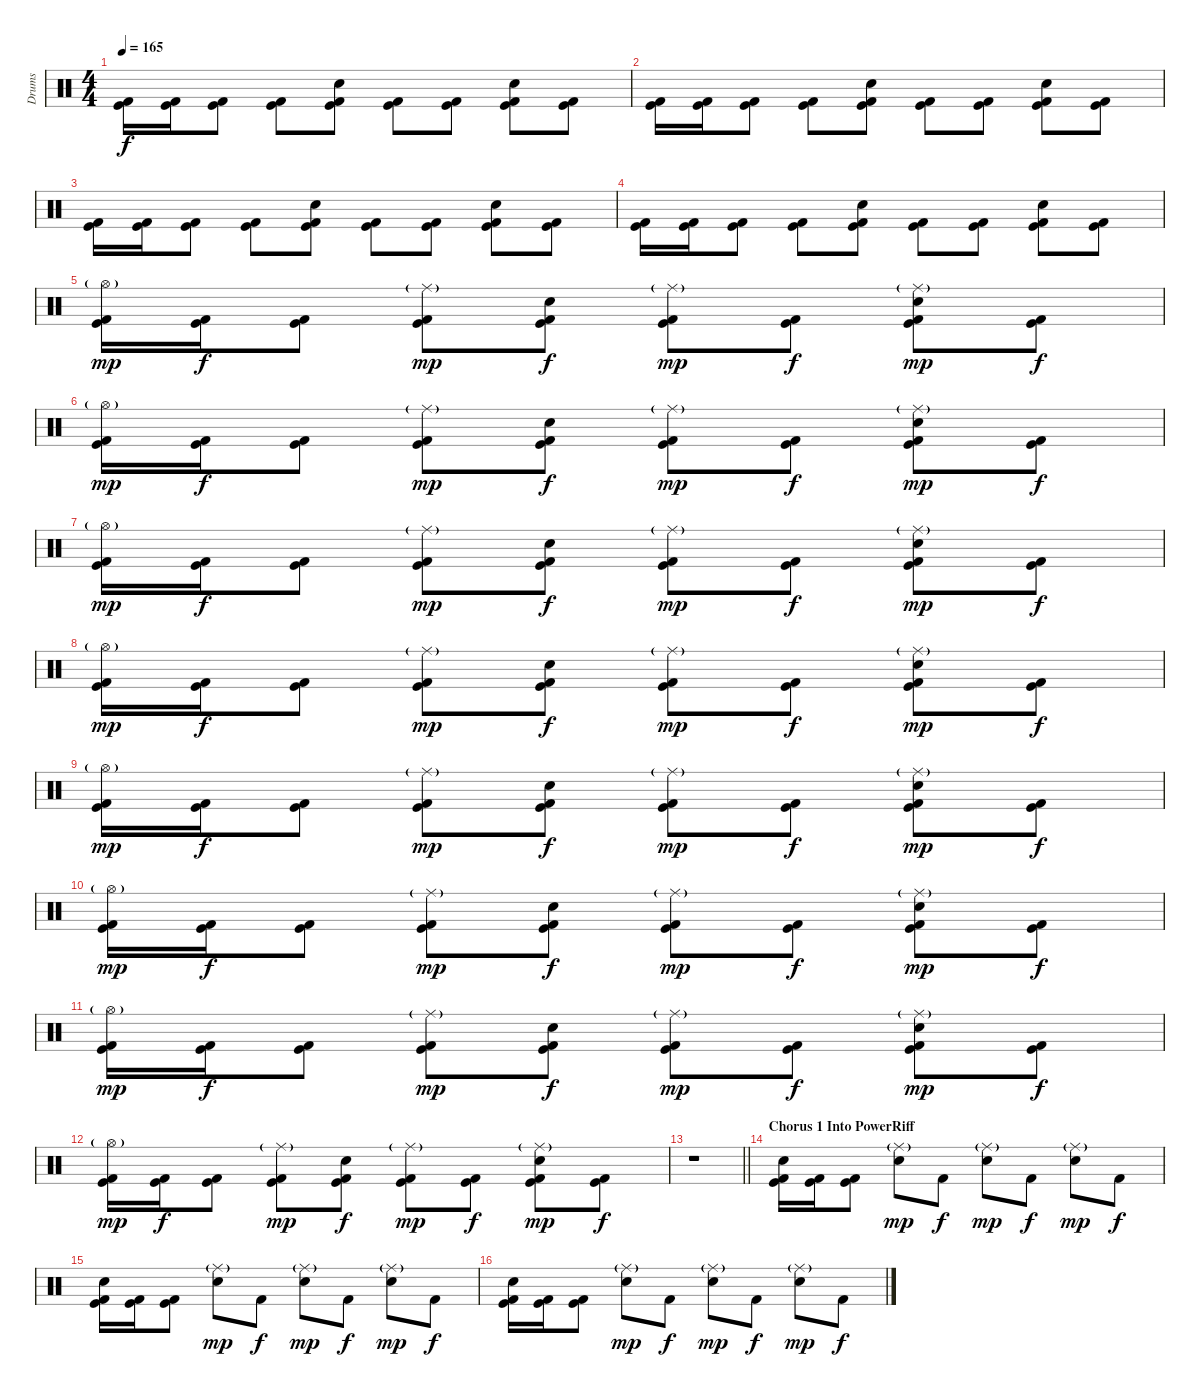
\track ("Drums" "Drums") {instrument percussion}
\staff {score}
\articulation defaults
\ts (4 4)
\tempo 165
\clef neutral
\ks c
("Kick (hit)" "Kick (hit) 2").16{dy f beam Down} ("Kick (hit)" "Kick (hit) 2").16{beam Down} ("Kick (hit)" "Kick (hit) 2").8{beam Down} ("Kick (hit)" "Kick (hit) 2").8{beam Down} ("Snare (hit) 2" "Kick (hit)" "Kick (hit) 2").8{beam Down} ("Kick (hit)" "Kick (hit) 2").8{beam Down} ("Kick (hit)" "Kick (hit) 2").8{beam Down} ("Snare (hit) 2" "Kick (hit)" "Kick (hit) 2").8{beam Down} ("Kick (hit)" "Kick (hit) 2").8{beam Down} |
("Kick (hit)" "Kick (hit) 2").16{beam Down} ("Kick (hit)" "Kick (hit) 2").16{beam Down} ("Kick (hit)" "Kick (hit) 2").8{beam Down} ("Kick (hit)" "Kick (hit) 2").8{beam Down} ("Snare (hit) 2" "Kick (hit)" "Kick (hit) 2").8{beam Down} ("Kick (hit)" "Kick (hit) 2").8{beam Down} ("Kick (hit)" "Kick (hit) 2").8{beam Down} ("Snare (hit) 2" "Kick (hit)" "Kick (hit) 2").8{beam Down} ("Kick (hit)" "Kick (hit) 2").8{beam Down} |
("Kick (hit)" "Kick (hit) 2").16{beam Down} ("Kick (hit)" "Kick (hit) 2").16{beam Down} ("Kick (hit)" "Kick (hit) 2").8{beam Down} ("Kick (hit)" "Kick (hit) 2").8{beam Down} ("Snare (hit) 2" "Kick (hit)" "Kick (hit) 2").8{beam Down} ("Kick (hit)" "Kick (hit) 2").8{beam Down} ("Kick (hit)" "Kick (hit) 2").8{beam Down} ("Snare (hit) 2" "Kick (hit)" "Kick (hit) 2").8{beam Down} ("Kick (hit)" "Kick (hit) 2").8{beam Down} |
("Kick (hit)" "Kick (hit) 2").16{beam Down} ("Kick (hit)" "Kick (hit) 2").16{beam Down} ("Kick (hit)" "Kick (hit) 2").8{beam Down} ("Kick (hit)" "Kick (hit) 2").8{beam Down} ("Snare (hit) 2" "Kick (hit)" "Kick (hit) 2").8{beam Down} ("Kick (hit)" "Kick (hit) 2").8{beam Down} ("Kick (hit)" "Kick (hit) 2").8{beam Down} ("Snare (hit) 2" "Kick (hit)" "Kick (hit) 2").8{beam Down} ("Kick (hit)" "Kick (hit) 2").8{beam Down} |
("Hi-Hat (open)"{g} "Kick (hit)" "Kick (hit) 2").16{dy mp beam Down} ("Kick (hit)" "Kick (hit) 2").16{dy f beam Down} ("Kick (hit)" "Kick (hit) 2").8{beam Down} ("Ride (middle)"{g} "Kick (hit)" "Kick (hit) 2").8{dy mp beam Down} ("Snare (hit) 2" "Kick (hit)" "Kick (hit) 2").8{dy f beam Down} ("Ride (middle)"{g} "Kick (hit)" "Kick (hit) 2").8{dy mp beam Down} ("Kick (hit)" "Kick (hit) 2").8{dy f beam Down} ("Ride (middle)"{g} "Snare (hit) 2" "Kick (hit)" "Kick (hit) 2").8{dy mp beam Down} ("Kick (hit)" "Kick (hit) 2").8{dy f beam Down} |
("Hi-Hat (open)"{g} "Kick (hit)" "Kick (hit) 2").16{dy mp beam Down} ("Kick (hit)" "Kick (hit) 2").16{dy f beam Down} ("Kick (hit)" "Kick (hit) 2").8{beam Down} ("Ride (middle)"{g} "Kick (hit)" "Kick (hit) 2").8{dy mp beam Down} ("Snare (hit) 2" "Kick (hit)" "Kick (hit) 2").8{dy f beam Down} ("Ride (middle)"{g} "Kick (hit)" "Kick (hit) 2").8{dy mp beam Down} ("Kick (hit)" "Kick (hit) 2").8{dy f beam Down} ("Ride (middle)"{g} "Snare (hit) 2" "Kick (hit)" "Kick (hit) 2").8{dy mp beam Down} ("Kick (hit)" "Kick (hit) 2").8{dy f beam Down} |
("Hi-Hat (open)"{g} "Kick (hit)" "Kick (hit) 2").16{dy mp beam Down} ("Kick (hit)" "Kick (hit) 2").16{dy f beam Down} ("Kick (hit)" "Kick (hit) 2").8{beam Down} ("Ride (middle)"{g} "Kick (hit)" "Kick (hit) 2").8{dy mp beam Down} ("Snare (hit) 2" "Kick (hit)" "Kick (hit) 2").8{dy f beam Down} ("Ride (middle)"{g} "Kick (hit)" "Kick (hit) 2").8{dy mp beam Down} ("Kick (hit)" "Kick (hit) 2").8{dy f beam Down} ("Ride (middle)"{g} "Snare (hit) 2" "Kick (hit)" "Kick (hit) 2").8{dy mp beam Down} ("Kick (hit)" "Kick (hit) 2").8{dy f beam Down} |
("Hi-Hat (open)"{g} "Kick (hit)" "Kick (hit) 2").16{dy mp beam Down} ("Kick (hit)" "Kick (hit) 2").16{dy f beam Down} ("Kick (hit)" "Kick (hit) 2").8{beam Down} ("Ride (middle)"{g} "Kick (hit)" "Kick (hit) 2").8{dy mp beam Down} ("Snare (hit) 2" "Kick (hit)" "Kick (hit) 2").8{dy f beam Down} ("Ride (middle)"{g} "Kick (hit)" "Kick (hit) 2").8{dy mp beam Down} ("Kick (hit)" "Kick (hit) 2").8{dy f beam Down} ("Ride (middle)"{g} "Snare (hit) 2" "Kick (hit)" "Kick (hit) 2").8{dy mp beam Down} ("Kick (hit)" "Kick (hit) 2").8{dy f beam Down} |
("Hi-Hat (open)"{g} "Kick (hit)" "Kick (hit) 2").16{dy mp beam Down} ("Kick (hit)" "Kick (hit) 2").16{dy f beam Down} ("Kick (hit)" "Kick (hit) 2").8{beam Down} ("Ride (middle)"{g} "Kick (hit)" "Kick (hit) 2").8{dy mp beam Down} ("Snare (hit) 2" "Kick (hit)" "Kick (hit) 2").8{dy f beam Down} ("Ride (middle)"{g} "Kick (hit)" "Kick (hit) 2").8{dy mp beam Down} ("Kick (hit)" "Kick (hit) 2").8{dy f beam Down} ("Ride (middle)"{g} "Snare (hit) 2" "Kick (hit)" "Kick (hit) 2").8{dy mp beam Down} ("Kick (hit)" "Kick (hit) 2").8{dy f beam Down} |
("Hi-Hat (open)"{g} "Kick (hit)" "Kick (hit) 2").16{dy mp beam Down} ("Kick (hit)" "Kick (hit) 2").16{dy f beam Down} ("Kick (hit)" "Kick (hit) 2").8{beam Down} ("Ride (middle)"{g} "Kick (hit)" "Kick (hit) 2").8{dy mp beam Down} ("Snare (hit) 2" "Kick (hit)" "Kick (hit) 2").8{dy f beam Down} ("Ride (middle)"{g} "Kick (hit)" "Kick (hit) 2").8{dy mp beam Down} ("Kick (hit)" "Kick (hit) 2").8{dy f beam Down} ("Ride (middle)"{g} "Snare (hit) 2" "Kick (hit)" "Kick (hit) 2").8{dy mp beam Down} ("Kick (hit)" "Kick (hit) 2").8{dy f beam Down} |
("Hi-Hat (open)"{g} "Kick (hit)" "Kick (hit) 2").16{dy mp beam Down} ("Kick (hit)" "Kick (hit) 2").16{dy f beam Down} ("Kick (hit)" "Kick (hit) 2").8{beam Down} ("Ride (middle)"{g} "Kick (hit)" "Kick (hit) 2").8{dy mp beam Down} ("Snare (hit) 2" "Kick (hit)" "Kick (hit) 2").8{dy f beam Down} ("Ride (middle)"{g} "Kick (hit)" "Kick (hit) 2").8{dy mp beam Down} ("Kick (hit)" "Kick (hit) 2").8{dy f beam Down} ("Ride (middle)"{g} "Snare (hit) 2" "Kick (hit)" "Kick (hit) 2").8{dy mp beam Down} ("Kick (hit)" "Kick (hit) 2").8{dy f beam Down} |
("Hi-Hat (open)"{g} "Kick (hit)" "Kick (hit) 2").16{dy mp beam Down} ("Kick (hit)" "Kick (hit) 2").16{dy f beam Down} ("Kick (hit)" "Kick (hit) 2").8{beam Down} ("Ride (middle)"{g} "Kick (hit)" "Kick (hit) 2").8{dy mp beam Down} ("Snare (hit) 2" "Kick (hit)" "Kick (hit) 2").8{dy f beam Down} ("Ride (middle)"{g} "Kick (hit)" "Kick (hit) 2").8{dy mp beam Down} ("Kick (hit)" "Kick (hit) 2").8{dy f beam Down} ("Ride (middle)"{g} "Snare (hit) 2" "Kick (hit)" "Kick (hit) 2").8{dy mp beam Down} ("Kick (hit)" "Kick (hit) 2").8{dy f beam Down} |
\barLineRight lightlight
r.1 |
\section ("" "Chorus 1 Into PowerRiff")
("Snare (hit) 2" "Kick (hit)" "Kick (hit) 2").16{beam Down} ("Kick (hit)" "Kick (hit) 2").16{beam Down} ("Kick (hit)" "Kick (hit) 2").8{beam Down} ("Ride (middle)"{g} "Snare (hit) 2").8{dy mp} "Kick (hit) 2".8{dy f} ("Ride (middle)"{g} "Snare (hit) 2").8{dy mp} "Kick (hit) 2".8{dy f} ("Ride (middle)"{g} "Snare (hit) 2").8{dy mp} "Kick (hit) 2".8{dy f} |
("Snare (hit) 2" "Kick (hit)" "Kick (hit) 2").16{beam Down} ("Kick (hit)" "Kick (hit) 2").16{beam Down} ("Kick (hit)" "Kick (hit) 2").8{beam Down} ("Ride (middle)"{g} "Snare (hit) 2").8{dy mp} "Kick (hit) 2".8{dy f} ("Ride (middle)"{g} "Snare (hit) 2").8{dy mp} "Kick (hit) 2".8{dy f} ("Ride (middle)"{g} "Snare (hit) 2").8{dy mp} "Kick (hit) 2".8{dy f} |
("Snare (hit) 2" "Kick (hit)" "Kick (hit) 2").16{beam Down} ("Kick (hit)" "Kick (hit) 2").16{beam Down} ("Kick (hit)" "Kick (hit) 2").8{beam Down} ("Ride (middle)"{g} "Snare (hit) 2").8{dy mp} "Kick (hit) 2".8{dy f} ("Ride (middle)"{g} "Snare (hit) 2").8{dy mp} "Kick (hit) 2".8{dy f} ("Ride (middle)"{g} "Snare (hit) 2").8{dy mp} "Kick (hit) 2".8{dy f}
